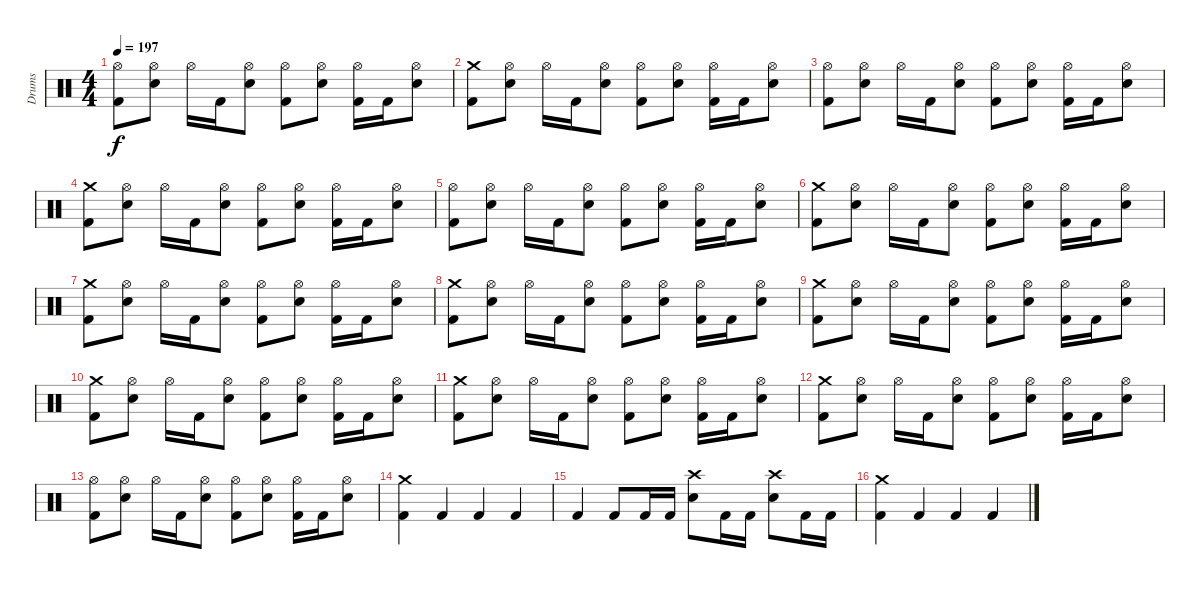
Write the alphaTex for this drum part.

\track ("Drums" "Drums") {instrument percussion}
\staff {score}
\articulation defaults
\ts (4 4)
\tempo 197
\clef neutral
\ks c
("Hi-Hat (open)" "Kick (hit) 2").8{dy f} ("Hi-Hat (open)" "Snare (hit) 2").8 "Hi-Hat (open)".16 "Kick (hit) 2".16 ("Hi-Hat (open)" "Snare (hit) 2").8 ("Hi-Hat (open)" "Kick (hit) 2").8 ("Hi-Hat (open)" "Snare (hit) 2").8 ("Hi-Hat (open)" "Kick (hit) 2").16 "Kick (hit) 2".16 ("Hi-Hat (open)" "Snare (hit) 2").8 |
("Crash medium (hit)" "Kick (hit) 2").8 ("Hi-Hat (open)" "Snare (hit) 2").8 "Hi-Hat (open)".16 "Kick (hit) 2".16 ("Hi-Hat (open)" "Snare (hit) 2").8 ("Hi-Hat (open)" "Kick (hit) 2").8 ("Hi-Hat (open)" "Snare (hit) 2").8 ("Hi-Hat (open)" "Kick (hit) 2").16 "Kick (hit) 2".16 ("Hi-Hat (open)" "Snare (hit) 2").8 |
("Hi-Hat (open)" "Kick (hit) 2").8 ("Hi-Hat (open)" "Snare (hit) 2").8 "Hi-Hat (open)".16 "Kick (hit) 2".16 ("Hi-Hat (open)" "Snare (hit) 2").8 ("Hi-Hat (open)" "Kick (hit) 2").8 ("Hi-Hat (open)" "Snare (hit) 2").8 ("Hi-Hat (open)" "Kick (hit) 2").16 "Kick (hit) 2".16 ("Hi-Hat (open)" "Snare (hit) 2").8 |
("Crash medium (hit)" "Kick (hit) 2").8 ("Hi-Hat (open)" "Snare (hit) 2").8 "Hi-Hat (open)".16 "Kick (hit) 2".16 ("Hi-Hat (open)" "Snare (hit) 2").8 ("Hi-Hat (open)" "Kick (hit) 2").8 ("Hi-Hat (open)" "Snare (hit) 2").8 ("Hi-Hat (open)" "Kick (hit) 2").16 "Kick (hit) 2".16 ("Hi-Hat (open)" "Snare (hit) 2").8 |
("Hi-Hat (open)" "Kick (hit) 2").8 ("Hi-Hat (open)" "Snare (hit) 2").8 "Hi-Hat (open)".16 "Kick (hit) 2".16 ("Hi-Hat (open)" "Snare (hit) 2").8 ("Hi-Hat (open)" "Kick (hit) 2").8 ("Hi-Hat (open)" "Snare (hit) 2").8 ("Hi-Hat (open)" "Kick (hit) 2").16 "Kick (hit) 2".16 ("Hi-Hat (open)" "Snare (hit) 2").8 |
("Crash medium (hit)" "Kick (hit) 2").8 ("Hi-Hat (open)" "Snare (hit) 2").8 "Hi-Hat (open)".16 "Kick (hit) 2".16 ("Hi-Hat (open)" "Snare (hit) 2").8 ("Hi-Hat (open)" "Kick (hit) 2").8 ("Hi-Hat (open)" "Snare (hit) 2").8 ("Hi-Hat (open)" "Kick (hit) 2").16 "Kick (hit) 2".16 ("Hi-Hat (open)" "Snare (hit) 2").8 |
("Crash medium (hit)" "Kick (hit) 2").8 ("Hi-Hat (open)" "Snare (hit) 2").8 "Hi-Hat (open)".16 "Kick (hit) 2".16 ("Hi-Hat (open)" "Snare (hit) 2").8 ("Hi-Hat (open)" "Kick (hit) 2").8 ("Hi-Hat (open)" "Snare (hit) 2").8 ("Hi-Hat (open)" "Kick (hit) 2").16 "Kick (hit) 2".16 ("Hi-Hat (open)" "Snare (hit) 2").8 |
("Crash medium (hit)" "Kick (hit) 2").8 ("Hi-Hat (open)" "Snare (hit) 2").8 "Hi-Hat (open)".16 "Kick (hit) 2".16 ("Hi-Hat (open)" "Snare (hit) 2").8 ("Hi-Hat (open)" "Kick (hit) 2").8 ("Hi-Hat (open)" "Snare (hit) 2").8 ("Hi-Hat (open)" "Kick (hit) 2").16 "Kick (hit) 2".16 ("Hi-Hat (open)" "Snare (hit) 2").8 |
("Crash medium (hit)" "Kick (hit) 2").8 ("Hi-Hat (open)" "Snare (hit) 2").8 "Hi-Hat (open)".16 "Kick (hit) 2".16 ("Hi-Hat (open)" "Snare (hit) 2").8 ("Hi-Hat (open)" "Kick (hit) 2").8 ("Hi-Hat (open)" "Snare (hit) 2").8 ("Hi-Hat (open)" "Kick (hit) 2").16 "Kick (hit) 2".16 ("Hi-Hat (open)" "Snare (hit) 2").8 |
("Crash medium (hit)" "Kick (hit) 2").8 ("Hi-Hat (open)" "Snare (hit) 2").8 "Hi-Hat (open)".16 "Kick (hit) 2".16 ("Hi-Hat (open)" "Snare (hit) 2").8 ("Hi-Hat (open)" "Kick (hit) 2").8 ("Hi-Hat (open)" "Snare (hit) 2").8 ("Hi-Hat (open)" "Kick (hit) 2").16 "Kick (hit) 2".16 ("Hi-Hat (open)" "Snare (hit) 2").8 |
("Crash medium (hit)" "Kick (hit) 2").8 ("Hi-Hat (open)" "Snare (hit) 2").8 "Hi-Hat (open)".16 "Kick (hit) 2".16 ("Hi-Hat (open)" "Snare (hit) 2").8 ("Hi-Hat (open)" "Kick (hit) 2").8 ("Hi-Hat (open)" "Snare (hit) 2").8 ("Hi-Hat (open)" "Kick (hit) 2").16 "Kick (hit) 2".16 ("Hi-Hat (open)" "Snare (hit) 2").8 |
("Crash medium (hit)" "Kick (hit) 2").8 ("Hi-Hat (open)" "Snare (hit) 2").8 "Hi-Hat (open)".16 "Kick (hit) 2".16 ("Hi-Hat (open)" "Snare (hit) 2").8 ("Hi-Hat (open)" "Kick (hit) 2").8 ("Hi-Hat (open)" "Snare (hit) 2").8 ("Hi-Hat (open)" "Kick (hit) 2").16 "Kick (hit) 2".16 ("Hi-Hat (open)" "Snare (hit) 2").8 |
("Hi-Hat (open)" "Kick (hit) 2").8 ("Hi-Hat (open)" "Snare (hit) 2").8 "Hi-Hat (open)".16 "Kick (hit) 2".16 ("Hi-Hat (open)" "Snare (hit) 2").8 ("Hi-Hat (open)" "Kick (hit) 2").8 ("Hi-Hat (open)" "Snare (hit) 2").8 ("Hi-Hat (open)" "Kick (hit) 2").16 "Kick (hit) 2".16 ("Hi-Hat (open)" "Snare (hit) 2").8 |
("Crash medium (hit)" "Kick (hit) 2").4 "Kick (hit) 2".4 "Kick (hit) 2".4 "Kick (hit) 2".4 |
"Kick (hit) 2".4 "Kick (hit) 2".8 "Kick (hit) 2".16 "Kick (hit) 2".16 ("Crash high (hit)" "Snare (hit) 2").8 "Kick (hit) 2".16 "Kick (hit) 2".16 ("Crash high (hit)" "Snare (hit) 2").8 "Kick (hit) 2".16 "Kick (hit) 2".16 |
("Crash medium (hit)" "Kick (hit) 2").4 "Kick (hit) 2".4 "Kick (hit) 2".4 "Kick (hit) 2".4
